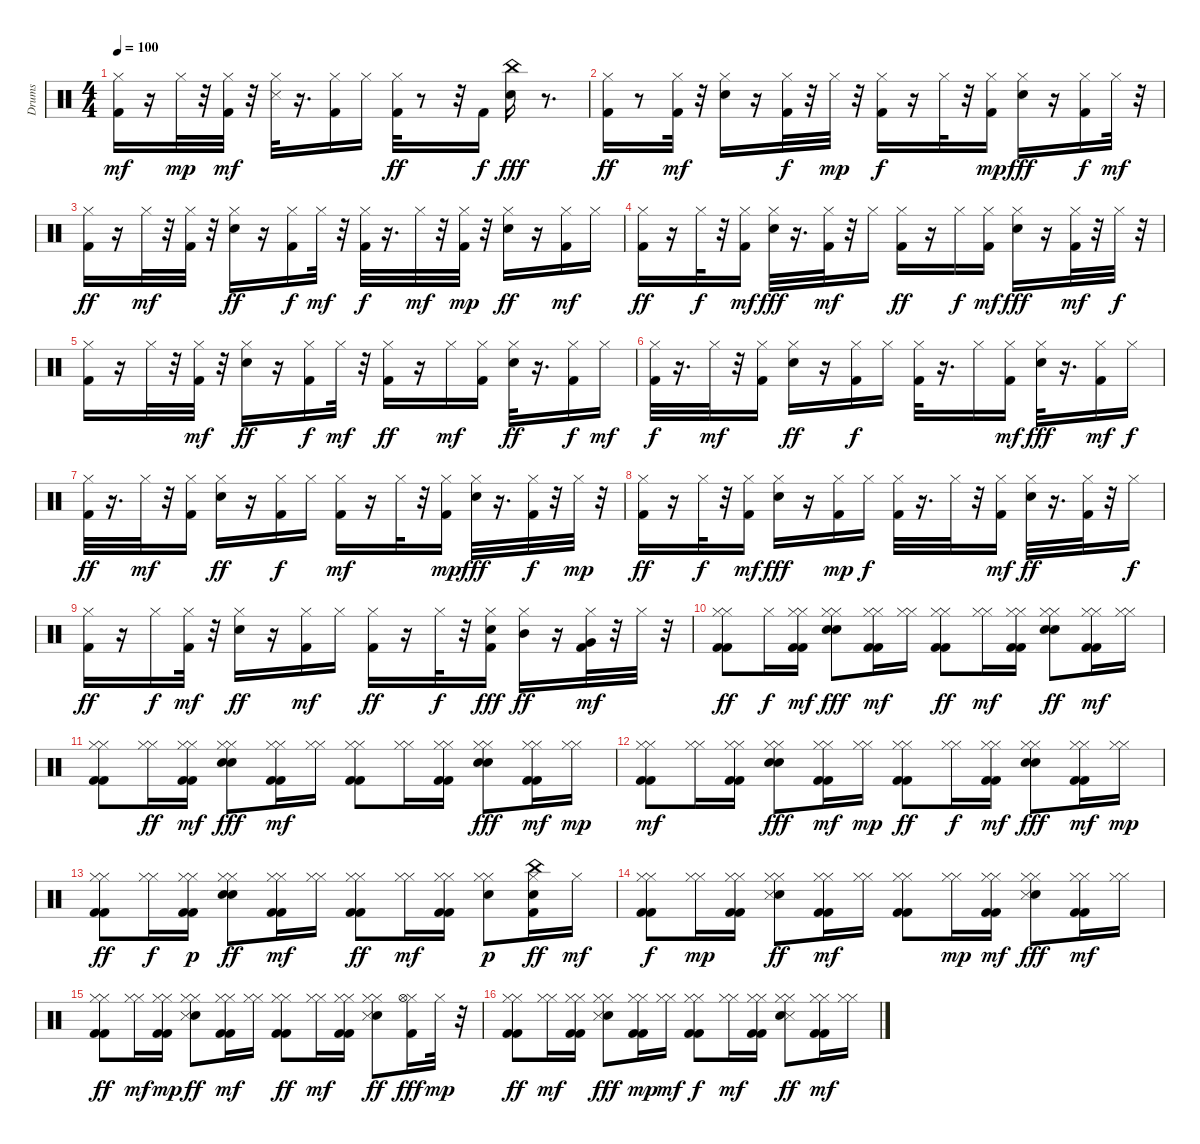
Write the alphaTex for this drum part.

\track ("Drums" "Drums") {instrument percussion}
\staff {score}
\articulation defaults
\ts (4 4)
\tempo 100
\clef neutral
\ks c
("Kick (hit) 2" "Hi-Hat (closed)").16{dy mf} r.16 "Hi-Hat (closed)".32{dy mp} r.32 ("Kick (hit) 2" "Hi-Hat (closed)").32{dy mf} r.32 ("Hi-Hat (closed)" "Snare (side stick) 3").32 r.16{d} ("Kick (hit) 2" "Hi-Hat (closed)").16 "Hi-Hat (closed)".16 ("Kick (hit) 2" "Hi-Hat (closed)").32{dy ff} r.8 r.32 "Kick (hit) 2".16{dy f} ("China (hit)" "Snare (hit) 2").16{dy fff} r.8{d} |
("Kick (hit) 2" "Hi-Hat (closed)").16{dy ff} r.8 ("Hi-Hat (closed)" "Kick (hit) 2").32{dy mf} r.32 ("Snare (hit) 2" "Hi-Hat (closed)").16 r.16 ("Kick (hit) 2" "Hi-Hat (closed)").32{dy f} r.32 "Hi-Hat (closed)".32{dy mp} r.32 ("Kick (hit) 2" "Hi-Hat (closed)").16{dy f} r.16 "Hi-Hat (closed)".32 r.32 ("Kick (hit) 2" "Hi-Hat (closed)").16{dy mp} ("Hi-Hat (closed)" "Snare (hit) 2").16{dy fff} r.16 ("Kick (hit) 2" "Hi-Hat (closed)").16{dy f} "Hi-Hat (closed)".32{dy mf} r.32 |
("Kick (hit) 2" "Hi-Hat (closed)").16{dy ff} r.16 "Hi-Hat (closed)".32{dy mf} r.32 ("Kick (hit) 2" "Hi-Hat (closed)").32 r.32 ("Hi-Hat (closed)" "Snare (hit) 2").16{dy ff} r.16 ("Kick (hit) 2" "Hi-Hat (closed)").16{dy f} "Hi-Hat (closed)".32{dy mf} r.32 ("Kick (hit) 2" "Hi-Hat (closed)").32{dy f} r.16{d} "Hi-Hat (closed)".32{dy mf} r.32 ("Kick (hit) 2" "Hi-Hat (closed)").32{dy mp} r.32 ("Hi-Hat (closed)" "Snare (hit) 2").16{dy ff} r.16 ("Hi-Hat (closed)" "Kick (hit) 2").16{dy mf} "Hi-Hat (closed)".16 |
("Hi-Hat (closed)" "Kick (hit) 2").16{dy ff} r.16 "Hi-Hat (closed)".32{dy f} r.32 ("Kick (hit) 2" "Hi-Hat (closed)").16{dy mf} ("Hi-Hat (closed)" "Snare (hit) 2").32{dy fff} r.16{d} ("Kick (hit) 2" "Hi-Hat (closed)").32{dy mf} r.32 "Hi-Hat (closed)".16 ("Hi-Hat (closed)" "Kick (hit) 2").16{dy ff} r.16 "Hi-Hat (closed)".16{dy f} ("Kick (hit) 2" "Hi-Hat (closed)").16{dy mf} ("Hi-Hat (closed)" "Snare (hit) 2").16{dy fff} r.16 ("Kick (hit) 2" "Hi-Hat (closed)").32{dy mf} r.32 "Hi-Hat (closed)".32{dy f} r.32 |
("Hi-Hat (closed)" "Kick (hit) 2").16 r.16 "Hi-Hat (closed)".32 r.32 ("Kick (hit) 2" "Hi-Hat (closed)").32{dy mf} r.32 ("Hi-Hat (closed)" "Snare (hit) 2").16{dy ff} r.16 ("Kick (hit) 2" "Hi-Hat (closed)").16{dy f} "Hi-Hat (closed)".32{dy mf} r.32 ("Kick (hit) 2" "Hi-Hat (closed)").16{dy ff} r.16 "Hi-Hat (closed)".16{dy mf} ("Kick (hit) 2" "Hi-Hat (closed)").16 ("Hi-Hat (closed)" "Snare (hit) 2").32{dy ff} r.16{d} ("Kick (hit) 2" "Hi-Hat (closed)").16{dy f} "Hi-Hat (closed)".16{dy mf} |
("Kick (hit) 2" "Hi-Hat (closed)").32{dy f} r.16{d} "Hi-Hat (closed)".32{dy mf} r.32 ("Kick (hit) 2" "Hi-Hat (closed)").16 ("Hi-Hat (closed)" "Snare (hit) 2").16{dy ff} r.16 ("Kick (hit) 2" "Hi-Hat (closed)").16{dy f} "Hi-Hat (closed)".16 ("Kick (hit) 2" "Hi-Hat (closed)").32 r.16{d} "Hi-Hat (closed)".16 ("Kick (hit) 2" "Hi-Hat (closed)").16{dy mf} ("Hi-Hat (closed)" "Snare (hit) 2").32{dy fff} r.16{d} ("Kick (hit) 2" "Hi-Hat (closed)").16{dy mf} "Hi-Hat (closed)".16{dy f} |
("Kick (hit) 2" "Hi-Hat (closed)").32{dy ff} r.16{d} "Hi-Hat (closed)".32{dy mf} r.32 ("Kick (hit) 2" "Hi-Hat (closed)").16 ("Hi-Hat (closed)" "Snare (hit) 2").16{dy ff} r.16 ("Kick (hit) 2" "Hi-Hat (closed)").16{dy f} "Hi-Hat (closed)".16 ("Hi-Hat (closed)" "Kick (hit) 2").16{dy mf} r.16 "Hi-Hat (closed)".32 r.32 ("Kick (hit) 2" "Hi-Hat (closed)").16{dy mp} ("Hi-Hat (closed)" "Snare (hit) 2").32{dy fff} r.16{d} ("Kick (hit) 2" "Hi-Hat (closed)").32{dy f} r.32 "Hi-Hat (closed)".32{dy mp} r.32 |
("Kick (hit) 2" "Hi-Hat (closed)").16{dy ff} r.16 "Hi-Hat (closed)".32{dy f} r.32 ("Hi-Hat (closed)" "Kick (hit) 2").16{dy mf} ("Hi-Hat (closed)" "Snare (hit) 2").16{dy fff} r.16 ("Kick (hit) 2" "Hi-Hat (closed)").16{dy mp} "Hi-Hat (closed)".16{dy f} ("Kick (hit) 2" "Hi-Hat (closed)").32 r.16{d} "Hi-Hat (closed)".32 r.32 ("Kick (hit) 2" "Hi-Hat (closed)").16{dy mf} ("Hi-Hat (closed)" "Snare (hit) 2").32{dy ff} r.16{d} ("Kick (hit) 2" "Hi-Hat (closed)").32 r.32 "Hi-Hat (closed)".16{dy f} |
("Hi-Hat (closed)" "Kick (hit) 2").16{dy ff} r.16 "Hi-Hat (closed)".16{dy f} ("Kick (hit) 2" "Hi-Hat (closed)").32{dy mf} r.32 ("Hi-Hat (closed)" "Snare (hit) 2").16{dy ff} r.16 ("Hi-Hat (closed)" "Kick (hit) 2").16{dy mf} "Hi-Hat (closed)".16 ("Hi-Hat (closed)" "Kick (hit) 2").16{dy ff} r.16 "Hi-Hat (closed)".32{dy f} r.32 ("Hi-Hat (closed)" "Kick (hit) 2" "Snare (hit) 2").16{dy fff} ("Hi-Hat (closed)" "Mid Tom (hit)").16{dy ff} r.16 ("Kick (hit) 2" "Hi-Hat (closed)" "Very Low Tom (hit)").32{dy mf} r.32 "Hi-Hat (closed)".32 r.32 |
("Kick (hit) 2" "Hi-Hat (closed)" "Kick (hit) 2" "Hi-Hat (closed)").8{dy ff} "Hi-Hat (closed)".16{dy f} ("Hi-Hat (closed)" "Kick (hit) 2" "Kick (hit) 2" "Hi-Hat (closed)").16{dy mf} ("Snare (hit) 2" "Hi-Hat (closed)" "Hi-Hat (closed)" "Snare (hit) 2").8{dy fff} ("Kick (hit) 2" "Hi-Hat (closed)" "Kick (hit) 2" "Hi-Hat (closed)").16{dy mf} ("Hi-Hat (closed)" "Hi-Hat (closed)").16 ("Kick (hit) 2" "Hi-Hat (closed)" "Kick (hit) 2" "Hi-Hat (closed)").8{dy ff} ("Hi-Hat (closed)" "Hi-Hat (closed)").16{dy mf} ("Kick (hit) 2" "Hi-Hat (closed)" "Kick (hit) 2" "Hi-Hat (closed)").16 ("Hi-Hat (closed)" "Hi-Hat (closed)" "Snare (hit) 2" "Snare (hit) 2").8{dy ff} ("Kick (hit) 2" "Hi-Hat (closed)" "Kick (hit) 2" "Hi-Hat (closed)").16{dy mf} ("Hi-Hat (closed)" "Hi-Hat (closed)").16 |
("Kick (hit) 2" "Hi-Hat (closed)" "Kick (hit) 2" "Hi-Hat (closed)").8 ("Hi-Hat (closed)" "Hi-Hat (closed)").16{dy ff} ("Kick (hit) 2" "Hi-Hat (closed)" "Kick (hit) 2" "Hi-Hat (closed)").16{dy mf} ("Hi-Hat (closed)" "Snare (hit) 2" "Hi-Hat (closed)" "Snare (hit) 2").8{dy fff} ("Kick (hit) 2" "Hi-Hat (closed)" "Kick (hit) 2" "Hi-Hat (closed)").16{dy mf} ("Hi-Hat (closed)" "Hi-Hat (closed)").16 ("Kick (hit) 2" "Hi-Hat (closed)" "Kick (hit) 2" "Hi-Hat (closed)").8 ("Hi-Hat (closed)" "Hi-Hat (closed)").16 ("Kick (hit) 2" "Hi-Hat (closed)" "Hi-Hat (closed)" "Kick (hit) 2").16 ("Hi-Hat (closed)" "Hi-Hat (closed)" "Snare (hit) 2" "Snare (hit) 2").8{dy fff} ("Hi-Hat (closed)" "Kick (hit) 2" "Kick (hit) 2" "Hi-Hat (closed)").16{dy mf} ("Hi-Hat (closed)" "Hi-Hat (closed)").16{dy mp} |
("Hi-Hat (closed)" "Kick (hit) 2" "Hi-Hat (closed)" "Kick (hit) 2").8{dy mf} ("Hi-Hat (closed)" "Hi-Hat (closed)").16 ("Kick (hit) 2" "Hi-Hat (closed)" "Kick (hit) 2" "Hi-Hat (closed)").16 ("Hi-Hat (closed)" "Hi-Hat (closed)" "Snare (hit) 2" "Snare (hit) 2").8{dy fff} ("Kick (hit) 2" "Hi-Hat (closed)" "Kick (hit) 2" "Hi-Hat (closed)").16{dy mf} ("Hi-Hat (closed)" "Hi-Hat (closed)").16{dy mp} ("Hi-Hat (closed)" "Kick (hit) 2" "Kick (hit) 2" "Hi-Hat (closed)").8{dy ff} ("Hi-Hat (closed)" "Hi-Hat (closed)").16{dy f} ("Kick (hit) 2" "Hi-Hat (closed)" "Kick (hit) 2" "Hi-Hat (closed)").16{dy mf} ("Hi-Hat (closed)" "Hi-Hat (closed)" "Snare (hit) 2" "Snare (hit) 2").8{dy fff} ("Kick (hit) 2" "Hi-Hat (closed)" "Kick (hit) 2" "Hi-Hat (closed)").16{dy mf} ("Hi-Hat (closed)" "Hi-Hat (closed)").16{dy mp} |
("Hi-Hat (closed)" "Kick (hit) 2" "Hi-Hat (closed)" "Kick (hit) 2").8{dy ff} ("Hi-Hat (closed)" "Hi-Hat (closed)").16{dy f} ("Kick (hit) 2" "Hi-Hat (closed)" "Kick (hit) 2" "Hi-Hat (closed)").16{dy p} ("Hi-Hat (closed)" "Snare (hit) 2" "Hi-Hat (closed)" "Snare (hit) 2").8{dy ff} ("Kick (hit) 2" "Hi-Hat (closed)" "Kick (hit) 2" "Hi-Hat (closed)").16{dy mf} ("Hi-Hat (closed)" "Hi-Hat (closed)").16 ("Kick (hit) 2" "Kick (hit) 2" "Hi-Hat (closed)" "Hi-Hat (closed)").8{dy ff} ("Hi-Hat (closed)" "Hi-Hat (closed)").16{dy mf} ("Kick (hit) 2" "Hi-Hat (closed)" "Kick (hit) 2" "Hi-Hat (closed)").16 ("Hi-Hat (closed)" "Snare (hit) 2" "Hi-Hat (closed)").8{dy p} ("Kick (hit) 2" "Hi-Hat (closed)" "China (hit)" "Snare (hit) 2").16{dy ff} "Hi-Hat (closed)".16{dy mf} |
("Kick (hit) 2" "Hi-Hat (closed)" "Hi-Hat (closed)" "Kick (hit) 2").8{dy f} ("Hi-Hat (closed)" "Hi-Hat (closed)").16{dy mp} ("Kick (hit) 2" "Hi-Hat (closed)" "Kick (hit) 2" "Hi-Hat (closed)").16 ("Hi-Hat (closed)" "Hi-Hat (closed)" "Snare (hit) 2" "Snare (side stick) 3").8{dy ff} ("Kick (hit) 2" "Hi-Hat (closed)" "Hi-Hat (closed)" "Kick (hit) 2").16{dy mf} ("Hi-Hat (closed)" "Hi-Hat (closed)").16 ("Kick (hit) 2" "Hi-Hat (closed)" "Kick (hit) 2" "Hi-Hat (closed)").8 ("Hi-Hat (closed)" "Hi-Hat (closed)").16{dy mp} ("Kick (hit) 2" "Hi-Hat (closed)" "Hi-Hat (closed)" "Kick (hit) 2").16{dy mf} ("Hi-Hat (closed)" "Hi-Hat (closed)" "Snare (hit) 2" "Snare (side stick) 3").8{dy fff} ("Kick (hit) 2" "Hi-Hat (closed)" "Kick (hit) 2" "Hi-Hat (closed)").16{dy mf} ("Hi-Hat (closed)" "Hi-Hat (closed)").16 |
("Kick (hit) 2" "Hi-Hat (closed)" "Hi-Hat (closed)" "Kick (hit) 2").8{dy ff} ("Hi-Hat (closed)" "Hi-Hat (closed)").16{dy mf} ("Kick (hit) 2" "Hi-Hat (closed)" "Kick (hit) 2" "Hi-Hat (closed)").16{dy mp} ("Hi-Hat (closed)" "Hi-Hat (closed)" "Snare (hit) 2" "Snare (side stick) 3").8{dy ff} ("Kick (hit) 2" "Hi-Hat (closed)" "Hi-Hat (closed)" "Kick (hit) 2").16{dy mf} ("Hi-Hat (closed)" "Hi-Hat (closed)").16 ("Hi-Hat (closed)" "Kick (hit) 2" "Kick (hit) 2" "Hi-Hat (closed)").8{dy ff} ("Hi-Hat (closed)" "Hi-Hat (closed)").16{dy mf} ("Kick (hit) 2" "Hi-Hat (closed)" "Kick (hit) 2" "Hi-Hat (closed)").16 ("Hi-Hat (closed)" "Snare (hit) 2" "Snare (side stick) 3" "Hi-Hat (closed)").8{dy ff} ("Kick (hit) 2" "Hi-Hat (closed)" "Hi-Hat (open)").16{dy fff} "Hi-Hat (closed)".32{dy mp} r.32 |
("Kick (hit) 2" "Hi-Hat (closed)" "Kick (hit) 2" "Hi-Hat (closed)").8{dy ff} ("Hi-Hat (closed)" "Hi-Hat (closed)").16{dy mf} ("Hi-Hat (closed)" "Kick (hit) 2" "Hi-Hat (closed)" "Kick (hit) 2").16 ("Hi-Hat (closed)" "Hi-Hat (closed)" "Snare (hit) 2" "Snare (side stick) 3").8{dy fff} ("Kick (hit) 2" "Hi-Hat (closed)" "Hi-Hat (closed)" "Kick (hit) 2").16{dy mp} ("Hi-Hat (closed)" "Hi-Hat (closed)").16{dy mf} ("Kick (hit) 2" "Hi-Hat (closed)" "Hi-Hat (closed)" "Kick (hit) 2").8{dy f} ("Hi-Hat (closed)" "Hi-Hat (closed)").16{dy mf} ("Kick (hit) 2" "Hi-Hat (closed)" "Kick (hit) 2" "Hi-Hat (closed)").16 ("Hi-Hat (closed)" "Snare (side stick) 3" "Snare (hit) 2" "Hi-Hat (closed)").8{dy ff} ("Kick (hit) 2" "Hi-Hat (closed)" "Hi-Hat (closed)" "Kick (hit) 2").16{dy mf} ("Hi-Hat (closed)" "Hi-Hat (closed)").16
